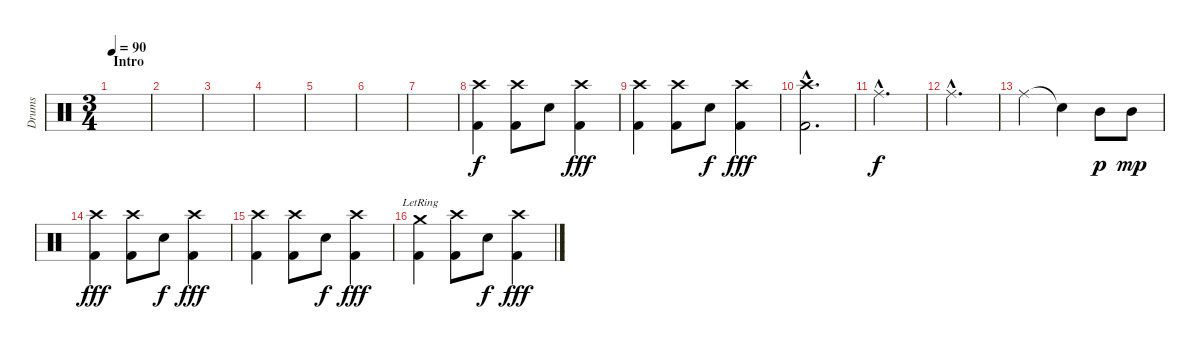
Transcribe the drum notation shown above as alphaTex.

\track ("Drums" "Drums") {instrument percussion}
\staff {score}
\articulation defaults
\ts (3 4)
\section ("" "Intro")
\tempo 90
\clef neutral
\ks c
|
|
|
|
|
|
|
("Crash high (hit)" "Kick (hit) 2").4 ("Crash high (hit)" "Kick (hit) 2").8 "Snare (hit) 2".8{dy f} ("Crash high (hit)" "Kick (hit) 2").4{dy fff} |
("Crash high (hit)" "Kick (hit) 2").4 ("Crash high (hit)" "Kick (hit) 2").8 "Snare (hit) 2".8{dy f} ("Crash high (hit)" "Kick (hit) 2").4{dy fff} |
("Crash high (hit)"{hac} "Kick (hit) 2"{hac}).2{d} |
"Ride (middle)"{hac}.2{d dy f} |
"Ride (middle)"{hac}.2{d} |
"Ride (middle)".4 "Snare (hit)"{t}.4 "Mid Tom (hit)".8{dy p} "Mid Tom (hit)".8{dy mp} |
("Crash high (hit)" "Kick (hit) 2").4{dy fff} ("Crash high (hit)" "Kick (hit) 2").8 "Snare (hit) 2".8{dy f} ("Crash high (hit)" "Kick (hit) 2").4{dy fff} |
("Crash high (hit)" "Kick (hit) 2").4 ("Crash high (hit)" "Kick (hit) 2").8 "Snare (hit) 2".8{dy f} ("Crash high (hit)" "Kick (hit) 2").4{dy fff} |
("Crash medium (hit)"{lr} "Kick (hit) 2").4 ("Crash high (hit)" "Kick (hit) 2").8 "Snare (hit) 2".8{dy f} ("Crash high (hit)" "Kick (hit) 2").4{dy fff}
